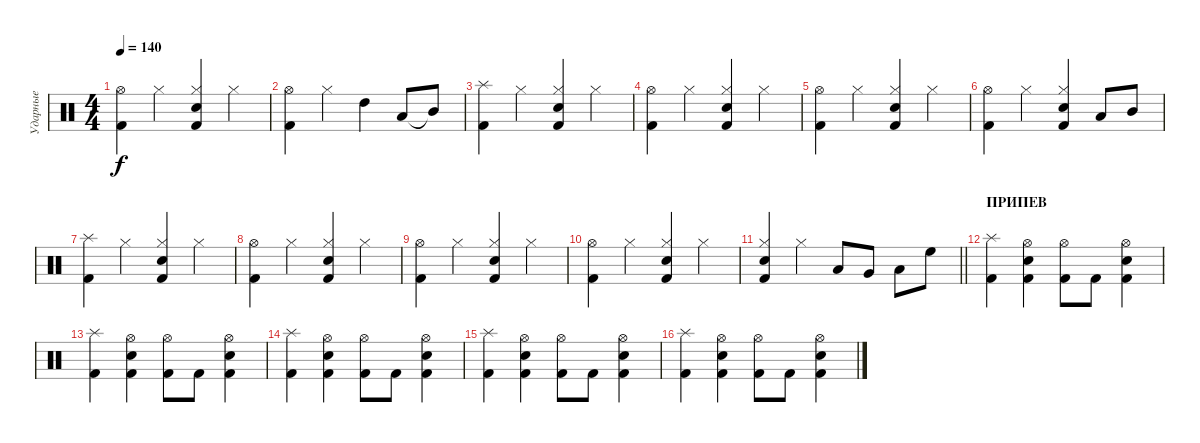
\track ("Ударные" "Ударные") {instrument percussion}
\staff {score}
\articulation defaults
\ts (4 4)
\tempo 140
\clef neutral
\ks c
("Hi-Hat (open)" "Kick (hit) 2").4{dy f} "Hi-Hat (closed)".4 ("Hi-Hat (closed)" "Electric Snare (hit)" "Kick (hit) 2").4 "Hi-Hat (closed)".4 |
("Hi-Hat (open)" "Kick (hit) 2").4 "Hi-Hat (closed)".4 "High Tom (hit)".4 "Low Tom (hit)".8 "Mid Tom (hit)"{t}.8 |
("Splash (hit)" "Kick (hit) 2").4 "Hi-Hat (closed)".4 ("Hi-Hat (closed)" "Electric Snare (hit)" "Kick (hit) 2").4 "Hi-Hat (closed)".4 |
("Hi-Hat (open)" "Kick (hit) 2").4 "Hi-Hat (closed)".4 ("Hi-Hat (closed)" "Electric Snare (hit)" "Kick (hit) 2").4 "Hi-Hat (closed)".4 |
("Hi-Hat (open)" "Kick (hit) 2").4 "Hi-Hat (closed)".4 ("Hi-Hat (closed)" "Electric Snare (hit)" "Kick (hit) 2").4 "Hi-Hat (closed)".4 |
("Hi-Hat (open)" "Kick (hit) 2").4 "Hi-Hat (closed)".4 ("Hi-Hat (closed)" "Electric Snare (hit)" "Kick (hit) 2").4 "Low Tom (hit)".8 "Mid Tom (hit)".8 |
("Splash (hit)" "Kick (hit) 2").4 "Hi-Hat (closed)".4 ("Hi-Hat (closed)" "Electric Snare (hit)" "Kick (hit) 2").4 "Hi-Hat (closed)".4 |
("Hi-Hat (open)" "Kick (hit) 2").4 "Hi-Hat (closed)".4 ("Hi-Hat (closed)" "Electric Snare (hit)" "Kick (hit) 2").4 "Hi-Hat (closed)".4 |
("Hi-Hat (open)" "Kick (hit) 2").4 "Hi-Hat (closed)".4 ("Hi-Hat (closed)" "Electric Snare (hit)" "Kick (hit) 2").4 "Hi-Hat (closed)".4 |
("Hi-Hat (open)" "Kick (hit) 2").4 "Hi-Hat (closed)".4 ("Hi-Hat (closed)" "Electric Snare (hit)" "Kick (hit) 2").4 "Hi-Hat (closed)".4 |
\barLineRight lightlight
("Hi-Hat (closed)" "Electric Snare (hit)" "Kick (hit) 2").4 "Hi-Hat (closed)".4 "Low Floor Tom (hit)".8 "Very Low Tom (hit)".8 "Low Tom (hit)".8 "High Floor Tom (hit)".8 |
\section ("" "ПРИПЕВ")
("Splash (hit)" "Kick (hit) 2").4 ("Hi-Hat (open)" "Electric Snare (hit)" "Kick (hit) 2").4 ("Hi-Hat (open)" "Kick (hit) 2").8 "Kick (hit) 2".8 ("Hi-Hat (open)" "Electric Snare (hit)" "Kick (hit) 2").4 |
("Splash (hit)" "Kick (hit) 2").4 ("Hi-Hat (open)" "Electric Snare (hit)" "Kick (hit) 2").4 ("Hi-Hat (open)" "Kick (hit) 2").8 "Kick (hit) 2".8 ("Hi-Hat (open)" "Electric Snare (hit)" "Kick (hit) 2").4 |
("Splash (hit)" "Kick (hit) 2").4 ("Hi-Hat (open)" "Electric Snare (hit)" "Kick (hit) 2").4 ("Hi-Hat (open)" "Kick (hit) 2").8 "Kick (hit) 2".8 ("Hi-Hat (open)" "Electric Snare (hit)" "Kick (hit) 2").4 |
("Splash (hit)" "Kick (hit) 2").4 ("Hi-Hat (open)" "Electric Snare (hit)" "Kick (hit) 2").4 ("Hi-Hat (open)" "Kick (hit) 2").8 "Kick (hit) 2".8 ("Hi-Hat (open)" "Electric Snare (hit)" "Kick (hit) 2").4 |
("Splash (hit)" "Kick (hit) 2").4 ("Hi-Hat (open)" "Electric Snare (hit)" "Kick (hit) 2").4 ("Hi-Hat (open)" "Kick (hit) 2").8 "Kick (hit) 2".8 ("Hi-Hat (open)" "Electric Snare (hit)" "Kick (hit) 2").4
